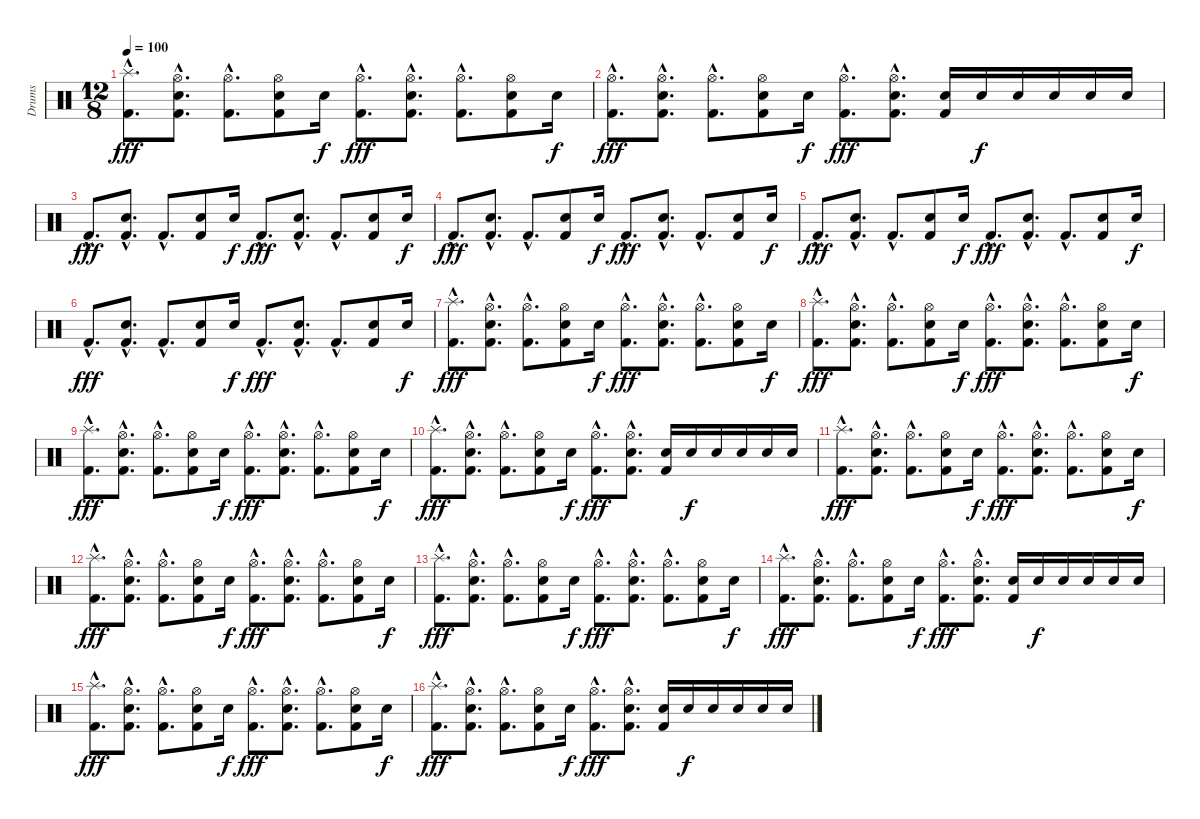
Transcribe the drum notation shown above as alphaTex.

\track ("Drums" "Drums") {instrument percussion}
\staff {score}
\articulation defaults
\ts (12 8)
\tempo 100
\clef neutral
\ks c
("Splash (hit)"{hac} "Kick (hit) 2"{hac}).8{d dy fff} ("Hi-Hat (open)"{hac} "Snare (hit) 2"{hac} "Kick (hit) 2"{hac}).8{d} ("Hi-Hat (open)"{hac} "Kick (hit) 2"{hac}).8{d} ("Hi-Hat (open)" "Snare (hit) 2" "Kick (hit) 2").8 "Snare (hit) 2".16{dy f} ("Hi-Hat (open)"{hac} "Kick (hit) 2"{hac}).8{d dy fff} ("Hi-Hat (open)"{hac} "Snare (hit) 2"{hac} "Kick (hit) 2"{hac}).8{d} ("Hi-Hat (open)"{hac} "Kick (hit) 2"{hac}).8{d} ("Hi-Hat (open)" "Snare (hit) 2" "Kick (hit) 2").8 "Snare (hit) 2".16{dy f} |
("Hi-Hat (open)"{hac} "Kick (hit) 2"{hac}).8{d dy fff} ("Hi-Hat (open)"{hac} "Snare (hit) 2"{hac} "Kick (hit) 2"{hac}).8{d} ("Hi-Hat (open)"{hac} "Kick (hit) 2"{hac}).8{d} ("Hi-Hat (open)" "Snare (hit) 2" "Kick (hit) 2").8 "Snare (hit) 2".16{dy f} ("Hi-Hat (open)"{hac} "Kick (hit) 2"{hac}).8{d dy fff} ("Hi-Hat (open)"{hac} "Snare (hit) 2"{hac} "Kick (hit) 2"{hac}).8{d} ("Snare (hit) 2" "Kick (hit) 2").16 "Snare (hit) 2".16{dy f} "Snare (hit) 2".16 "Snare (hit) 2".16 "Snare (hit) 2".16 "Snare (hit) 2".16 |
"Kick (hit) 2"{hac}.8{d dy fff} ("Snare (hit) 2"{hac} "Kick (hit) 2"{hac}).8{d} "Kick (hit) 2"{hac}.8{d} ("Snare (hit) 2" "Kick (hit) 2").8 "Snare (hit) 2".16{dy f} "Kick (hit) 2"{hac}.8{d dy fff} ("Snare (hit) 2"{hac} "Kick (hit) 2"{hac}).8{d} "Kick (hit) 2"{hac}.8{d} ("Snare (hit) 2" "Kick (hit) 2").8 "Snare (hit) 2".16{dy f} |
"Kick (hit) 2"{hac}.8{d dy fff} ("Snare (hit) 2"{hac} "Kick (hit) 2"{hac}).8{d} "Kick (hit) 2"{hac}.8{d} ("Snare (hit) 2" "Kick (hit) 2").8 "Snare (hit) 2".16{dy f} "Kick (hit) 2"{hac}.8{d dy fff} ("Snare (hit) 2"{hac} "Kick (hit) 2"{hac}).8{d} "Kick (hit) 2"{hac}.8{d} ("Snare (hit) 2" "Kick (hit) 2").8 "Snare (hit) 2".16{dy f} |
"Kick (hit) 2"{hac}.8{d dy fff} ("Snare (hit) 2"{hac} "Kick (hit) 2"{hac}).8{d} "Kick (hit) 2"{hac}.8{d} ("Snare (hit) 2" "Kick (hit) 2").8 "Snare (hit) 2".16{dy f} "Kick (hit) 2"{hac}.8{d dy fff} ("Snare (hit) 2"{hac} "Kick (hit) 2"{hac}).8{d} "Kick (hit) 2"{hac}.8{d} ("Snare (hit) 2" "Kick (hit) 2").8 "Snare (hit) 2".16{dy f} |
"Kick (hit) 2"{hac}.8{d dy fff} ("Snare (hit) 2"{hac} "Kick (hit) 2"{hac}).8{d} "Kick (hit) 2"{hac}.8{d} ("Snare (hit) 2" "Kick (hit) 2").8 "Snare (hit) 2".16{dy f} "Kick (hit) 2"{hac}.8{d dy fff} ("Snare (hit) 2"{hac} "Kick (hit) 2"{hac}).8{d} "Kick (hit) 2"{hac}.8{d} ("Snare (hit) 2" "Kick (hit) 2").8 "Snare (hit) 2".16{dy f} |
("Splash (hit)"{hac} "Kick (hit) 2"{hac}).8{d dy fff} ("Hi-Hat (open)"{hac} "Snare (hit) 2"{hac} "Kick (hit) 2"{hac}).8{d} ("Hi-Hat (open)"{hac} "Kick (hit) 2"{hac}).8{d} ("Hi-Hat (open)" "Snare (hit) 2" "Kick (hit) 2").8 "Snare (hit) 2".16{dy f} ("Hi-Hat (open)"{hac} "Kick (hit) 2"{hac}).8{d dy fff} ("Hi-Hat (open)"{hac} "Snare (hit) 2"{hac} "Kick (hit) 2"{hac}).8{d} ("Hi-Hat (open)"{hac} "Kick (hit) 2"{hac}).8{d} ("Hi-Hat (open)" "Snare (hit) 2" "Kick (hit) 2").8 "Snare (hit) 2".16{dy f} |
("Splash (hit)"{hac} "Kick (hit) 2"{hac}).8{d dy fff} ("Hi-Hat (open)"{hac} "Snare (hit) 2"{hac} "Kick (hit) 2"{hac}).8{d} ("Hi-Hat (open)"{hac} "Kick (hit) 2"{hac}).8{d} ("Hi-Hat (open)" "Snare (hit) 2" "Kick (hit) 2").8 "Snare (hit) 2".16{dy f} ("Hi-Hat (open)"{hac} "Kick (hit) 2"{hac}).8{d dy fff} ("Hi-Hat (open)"{hac} "Snare (hit) 2"{hac} "Kick (hit) 2"{hac}).8{d} ("Hi-Hat (open)"{hac} "Kick (hit) 2"{hac}).8{d} ("Hi-Hat (open)" "Snare (hit) 2" "Kick (hit) 2").8 "Snare (hit) 2".16{dy f} |
("Splash (hit)"{hac} "Kick (hit) 2"{hac}).8{d dy fff} ("Hi-Hat (open)"{hac} "Snare (hit) 2"{hac} "Kick (hit) 2"{hac}).8{d} ("Hi-Hat (open)"{hac} "Kick (hit) 2"{hac}).8{d} ("Hi-Hat (open)" "Snare (hit) 2" "Kick (hit) 2").8 "Snare (hit) 2".16{dy f} ("Hi-Hat (open)"{hac} "Kick (hit) 2"{hac}).8{d dy fff} ("Hi-Hat (open)"{hac} "Snare (hit) 2"{hac} "Kick (hit) 2"{hac}).8{d} ("Hi-Hat (open)"{hac} "Kick (hit) 2"{hac}).8{d} ("Hi-Hat (open)" "Snare (hit) 2" "Kick (hit) 2").8 "Snare (hit) 2".16{dy f} |
("Splash (hit)"{hac} "Kick (hit) 2"{hac}).8{d dy fff} ("Hi-Hat (open)"{hac} "Snare (hit) 2"{hac} "Kick (hit) 2"{hac}).8{d} ("Hi-Hat (open)"{hac} "Kick (hit) 2"{hac}).8{d} ("Hi-Hat (open)" "Snare (hit) 2" "Kick (hit) 2").8 "Snare (hit) 2".16{dy f} ("Hi-Hat (open)"{hac} "Kick (hit) 2"{hac}).8{d dy fff} ("Hi-Hat (open)"{hac} "Snare (hit) 2"{hac} "Kick (hit) 2"{hac}).8{d} ("Snare (hit) 2" "Kick (hit) 2").16 "Snare (hit) 2".16{dy f} "Snare (hit) 2".16 "Snare (hit) 2".16 "Snare (hit) 2".16 "Snare (hit) 2".16 |
("Splash (hit)"{hac} "Kick (hit) 2"{hac}).8{d dy fff} ("Hi-Hat (open)"{hac} "Snare (hit) 2"{hac} "Kick (hit) 2"{hac}).8{d} ("Hi-Hat (open)"{hac} "Kick (hit) 2"{hac}).8{d} ("Hi-Hat (open)" "Snare (hit) 2" "Kick (hit) 2").8 "Snare (hit) 2".16{dy f} ("Hi-Hat (open)"{hac} "Kick (hit) 2"{hac}).8{d dy fff} ("Hi-Hat (open)"{hac} "Snare (hit) 2"{hac} "Kick (hit) 2"{hac}).8{d} ("Hi-Hat (open)"{hac} "Kick (hit) 2"{hac}).8{d} ("Hi-Hat (open)" "Snare (hit) 2" "Kick (hit) 2").8 "Snare (hit) 2".16{dy f} |
("Splash (hit)"{hac} "Kick (hit) 2"{hac}).8{d dy fff} ("Hi-Hat (open)"{hac} "Snare (hit) 2"{hac} "Kick (hit) 2"{hac}).8{d} ("Hi-Hat (open)"{hac} "Kick (hit) 2"{hac}).8{d} ("Hi-Hat (open)" "Snare (hit) 2" "Kick (hit) 2").8 "Snare (hit) 2".16{dy f} ("Hi-Hat (open)"{hac} "Kick (hit) 2"{hac}).8{d dy fff} ("Hi-Hat (open)"{hac} "Snare (hit) 2"{hac} "Kick (hit) 2"{hac}).8{d} ("Hi-Hat (open)"{hac} "Kick (hit) 2"{hac}).8{d} ("Hi-Hat (open)" "Snare (hit) 2" "Kick (hit) 2").8 "Snare (hit) 2".16{dy f} |
("Splash (hit)"{hac} "Kick (hit) 2"{hac}).8{d dy fff} ("Hi-Hat (open)"{hac} "Snare (hit) 2"{hac} "Kick (hit) 2"{hac}).8{d} ("Hi-Hat (open)"{hac} "Kick (hit) 2"{hac}).8{d} ("Hi-Hat (open)" "Snare (hit) 2" "Kick (hit) 2").8 "Snare (hit) 2".16{dy f} ("Hi-Hat (open)"{hac} "Kick (hit) 2"{hac}).8{d dy fff} ("Hi-Hat (open)"{hac} "Snare (hit) 2"{hac} "Kick (hit) 2"{hac}).8{d} ("Hi-Hat (open)"{hac} "Kick (hit) 2"{hac}).8{d} ("Hi-Hat (open)" "Snare (hit) 2" "Kick (hit) 2").8 "Snare (hit) 2".16{dy f} |
("Splash (hit)"{hac} "Kick (hit) 2"{hac}).8{d dy fff} ("Hi-Hat (open)"{hac} "Snare (hit) 2"{hac} "Kick (hit) 2"{hac}).8{d} ("Hi-Hat (open)"{hac} "Kick (hit) 2"{hac}).8{d} ("Hi-Hat (open)" "Snare (hit) 2" "Kick (hit) 2").8 "Snare (hit) 2".16{dy f} ("Hi-Hat (open)"{hac} "Kick (hit) 2"{hac}).8{d dy fff} ("Hi-Hat (open)"{hac} "Snare (hit) 2"{hac} "Kick (hit) 2"{hac}).8{d} ("Snare (hit) 2" "Kick (hit) 2").16 "Snare (hit) 2".16{dy f} "Snare (hit) 2".16 "Snare (hit) 2".16 "Snare (hit) 2".16 "Snare (hit) 2".16 |
("Splash (hit)"{hac} "Kick (hit) 2"{hac}).8{d dy fff} ("Hi-Hat (open)"{hac} "Snare (hit) 2"{hac} "Kick (hit) 2"{hac}).8{d} ("Hi-Hat (open)"{hac} "Kick (hit) 2"{hac}).8{d} ("Hi-Hat (open)" "Snare (hit) 2" "Kick (hit) 2").8 "Snare (hit) 2".16{dy f} ("Hi-Hat (open)"{hac} "Kick (hit) 2"{hac}).8{d dy fff} ("Hi-Hat (open)"{hac} "Snare (hit) 2"{hac} "Kick (hit) 2"{hac}).8{d} ("Hi-Hat (open)"{hac} "Kick (hit) 2"{hac}).8{d} ("Hi-Hat (open)" "Snare (hit) 2" "Kick (hit) 2").8 "Snare (hit) 2".16{dy f} |
("Splash (hit)"{hac} "Kick (hit) 2"{hac}).8{d dy fff} ("Hi-Hat (open)"{hac} "Snare (hit) 2"{hac} "Kick (hit) 2"{hac}).8{d} ("Hi-Hat (open)"{hac} "Kick (hit) 2"{hac}).8{d} ("Hi-Hat (open)" "Snare (hit) 2" "Kick (hit) 2").8 "Snare (hit) 2".16{dy f} ("Hi-Hat (open)"{hac} "Kick (hit) 2"{hac}).8{d dy fff} ("Hi-Hat (open)"{hac} "Snare (hit) 2"{hac} "Kick (hit) 2"{hac}).8{d} ("Snare (hit) 2" "Kick (hit) 2").16 "Snare (hit) 2".16{dy f} "Snare (hit) 2".16 "Snare (hit) 2".16 "Snare (hit) 2".16 "Snare (hit) 2".16
